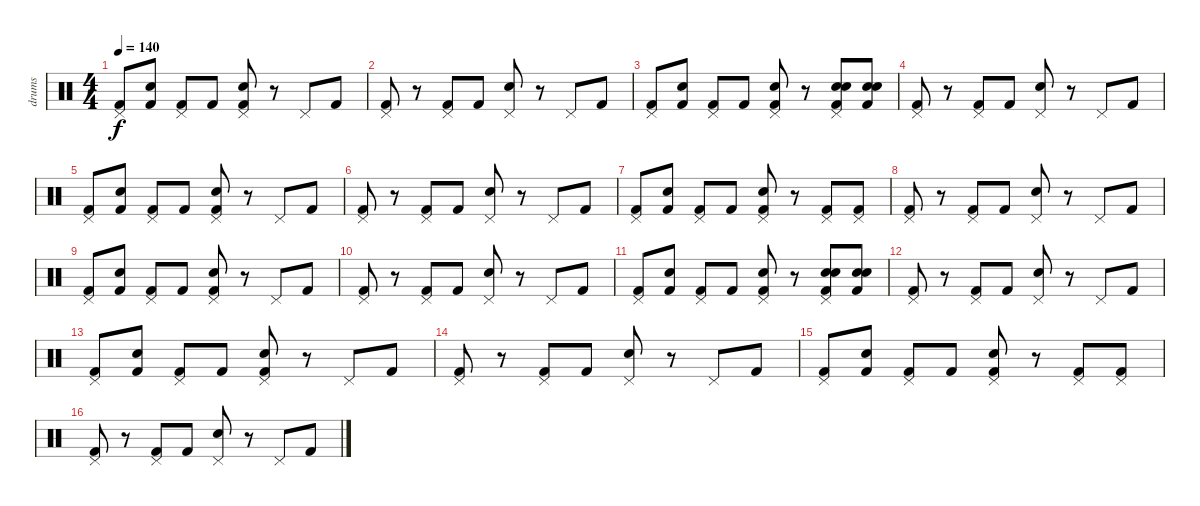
\track ("drums" "drums") {instrument percussion}
\staff {score}
\articulation defaults
\ts (4 4)
\tempo 140
\clef neutral
\ks c
("Kick (hit) 2" "Pedal Hi-Hat (hit)").8{dy f} ("Snare (hit) 2" "Kick (hit) 2").8 ("Kick (hit) 2" "Pedal Hi-Hat (hit)").8 "Kick (hit) 2".8 ("Snare (hit) 2" "Kick (hit) 2" "Pedal Hi-Hat (hit)").8 r.8 "Pedal Hi-Hat (hit)".8 "Kick (hit) 2".8 |
("Pedal Hi-Hat (hit)" "Kick (hit) 2").8 r.8 ("Pedal Hi-Hat (hit)" "Kick (hit) 2").8 "Kick (hit) 2".8 ("Pedal Hi-Hat (hit)" "Snare (hit) 2").8 r.8 "Pedal Hi-Hat (hit)".8 "Kick (hit) 2".8 |
("Kick (hit) 2" "Pedal Hi-Hat (hit)").8 ("Snare (hit) 2" "Kick (hit) 2").8 ("Kick (hit) 2" "Pedal Hi-Hat (hit)").8 "Kick (hit) 2".8 ("Snare (hit) 2" "Kick (hit) 2" "Pedal Hi-Hat (hit)").8 r.8 ("Kick (hit) 2" "Snare (hit) 2" "Snare (hit) 2" "Pedal Hi-Hat (hit)").8 ("Kick (hit) 2" "Snare (hit) 2" "Snare (hit) 2").8 |
("Pedal Hi-Hat (hit)" "Kick (hit) 2").8 r.8 ("Pedal Hi-Hat (hit)" "Kick (hit) 2").8 "Kick (hit) 2".8 ("Pedal Hi-Hat (hit)" "Snare (hit) 2").8 r.8 "Pedal Hi-Hat (hit)".8 "Kick (hit) 2".8 |
("Kick (hit) 2" "Pedal Hi-Hat (hit)").8 ("Snare (hit) 2" "Kick (hit) 2").8 ("Kick (hit) 2" "Pedal Hi-Hat (hit)").8 "Kick (hit) 2".8 ("Snare (hit) 2" "Kick (hit) 2" "Pedal Hi-Hat (hit)").8 r.8 "Pedal Hi-Hat (hit)".8 "Kick (hit) 2".8 |
("Pedal Hi-Hat (hit)" "Kick (hit) 2").8 r.8 ("Pedal Hi-Hat (hit)" "Kick (hit) 2").8 "Kick (hit) 2".8 ("Pedal Hi-Hat (hit)" "Snare (hit) 2").8 r.8 "Pedal Hi-Hat (hit)".8 "Kick (hit) 2".8 |
("Kick (hit) 2" "Pedal Hi-Hat (hit)").8 ("Snare (hit) 2" "Kick (hit) 2").8 ("Kick (hit) 2" "Pedal Hi-Hat (hit)").8 "Kick (hit) 2".8 ("Snare (hit) 2" "Kick (hit) 2" "Pedal Hi-Hat (hit)").8 r.8 ("Kick (hit) 2" "Pedal Hi-Hat (hit)").8 ("Kick (hit) 2" "Pedal Hi-Hat (hit)").8 |
("Pedal Hi-Hat (hit)" "Kick (hit) 2").8 r.8 ("Pedal Hi-Hat (hit)" "Kick (hit) 2").8 "Kick (hit) 2".8 ("Pedal Hi-Hat (hit)" "Snare (hit) 2").8 r.8 "Pedal Hi-Hat (hit)".8 "Kick (hit) 2".8 |
("Kick (hit) 2" "Pedal Hi-Hat (hit)").8 ("Snare (hit) 2" "Kick (hit) 2").8 ("Kick (hit) 2" "Pedal Hi-Hat (hit)").8 "Kick (hit) 2".8 ("Snare (hit) 2" "Kick (hit) 2" "Pedal Hi-Hat (hit)").8 r.8 "Pedal Hi-Hat (hit)".8 "Kick (hit) 2".8 |
("Pedal Hi-Hat (hit)" "Kick (hit) 2").8 r.8 ("Pedal Hi-Hat (hit)" "Kick (hit) 2").8 "Kick (hit) 2".8 ("Pedal Hi-Hat (hit)" "Snare (hit) 2").8 r.8 "Pedal Hi-Hat (hit)".8 "Kick (hit) 2".8 |
("Kick (hit) 2" "Pedal Hi-Hat (hit)").8 ("Snare (hit) 2" "Kick (hit) 2").8 ("Kick (hit) 2" "Pedal Hi-Hat (hit)").8 "Kick (hit) 2".8 ("Snare (hit) 2" "Kick (hit) 2" "Pedal Hi-Hat (hit)").8 r.8 ("Kick (hit) 2" "Snare (hit) 2" "Snare (hit) 2" "Pedal Hi-Hat (hit)").8 ("Kick (hit) 2" "Snare (hit) 2" "Snare (hit) 2").8 |
("Pedal Hi-Hat (hit)" "Kick (hit) 2").8 r.8 ("Pedal Hi-Hat (hit)" "Kick (hit) 2").8 "Kick (hit) 2".8 ("Pedal Hi-Hat (hit)" "Snare (hit) 2").8 r.8 "Pedal Hi-Hat (hit)".8 "Kick (hit) 2".8 |
("Kick (hit) 2" "Pedal Hi-Hat (hit)").8 ("Snare (hit) 2" "Kick (hit) 2").8 ("Kick (hit) 2" "Pedal Hi-Hat (hit)").8 "Kick (hit) 2".8 ("Snare (hit) 2" "Kick (hit) 2" "Pedal Hi-Hat (hit)").8 r.8 "Pedal Hi-Hat (hit)".8 "Kick (hit) 2".8 |
("Pedal Hi-Hat (hit)" "Kick (hit) 2").8 r.8 ("Pedal Hi-Hat (hit)" "Kick (hit) 2").8 "Kick (hit) 2".8 ("Pedal Hi-Hat (hit)" "Snare (hit) 2").8 r.8 "Pedal Hi-Hat (hit)".8 "Kick (hit) 2".8 |
("Kick (hit) 2" "Pedal Hi-Hat (hit)").8 ("Snare (hit) 2" "Kick (hit) 2").8 ("Kick (hit) 2" "Pedal Hi-Hat (hit)").8 "Kick (hit) 2".8 ("Snare (hit) 2" "Kick (hit) 2" "Pedal Hi-Hat (hit)").8 r.8 ("Kick (hit) 2" "Pedal Hi-Hat (hit)").8 ("Kick (hit) 2" "Pedal Hi-Hat (hit)").8 |
("Pedal Hi-Hat (hit)" "Kick (hit) 2").8 r.8 ("Pedal Hi-Hat (hit)" "Kick (hit) 2").8 "Kick (hit) 2".8 ("Pedal Hi-Hat (hit)" "Snare (hit) 2").8 r.8 "Pedal Hi-Hat (hit)".8 "Kick (hit) 2".8
